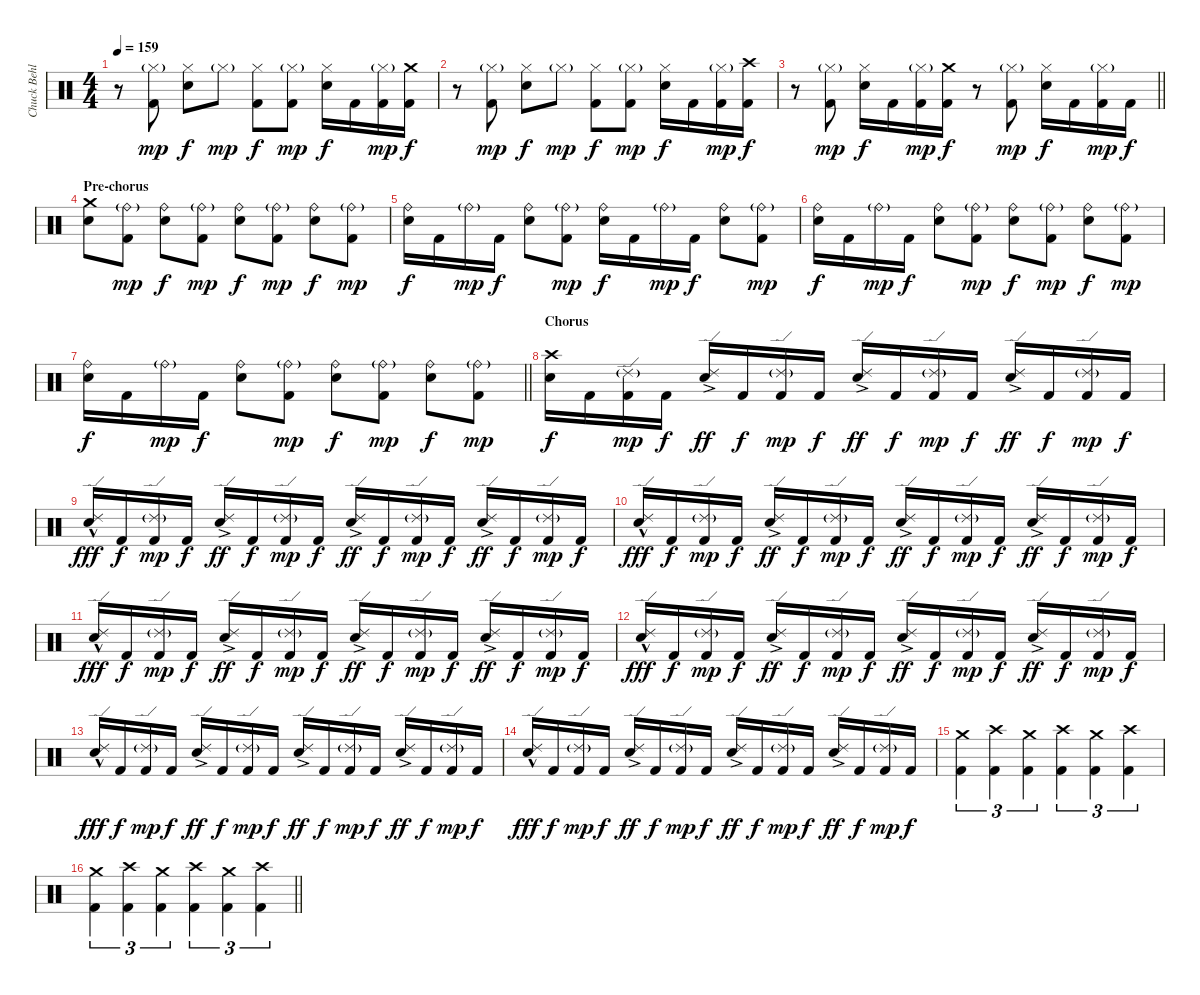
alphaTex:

\track ("Chuck Behler" "Chuck Behl") {instrument percussion}
\staff {score}
\articulation defaults
\ts (4 4)
\tempo 159
\clef neutral
\ks c
r.8{dy f} ("Hi-Hat (closed)"{g} "Kick (hit) 2").8{dy mp} ("Hi-Hat (closed)" "Snare (hit) 2").8{dy f} "Hi-Hat (closed)"{g}.8{dy mp} ("Hi-Hat (closed)" "Kick (hit) 2").8{dy f} ("Hi-Hat (closed)"{g} "Kick (hit) 2").8{dy mp} ("Hi-Hat (closed)" "Snare (hit) 2").16{dy f} "Kick (hit) 2".16 ("Hi-Hat (closed)"{g} "Kick (hit) 2").16{dy mp} ("Crash medium (hit)" "Kick (hit) 2").16{dy f} |
r.8 ("Hi-Hat (closed)"{g} "Kick (hit) 2").8{dy mp} ("Hi-Hat (closed)" "Snare (hit) 2").8{dy f} "Hi-Hat (closed)"{g}.8{dy mp} ("Hi-Hat (closed)" "Kick (hit) 2").8{dy f} ("Hi-Hat (closed)"{g} "Kick (hit) 2").8{dy mp} ("Hi-Hat (closed)" "Snare (hit) 2").16{dy f} "Kick (hit) 2".16 ("Hi-Hat (closed)"{g} "Kick (hit) 2").16{dy mp} ("Crash high (hit)" "Kick (hit) 2").16{dy f} |
\barLineRight lightlight
r.8 ("Hi-Hat (closed)"{g} "Kick (hit) 2").8{dy mp} ("Hi-Hat (closed)" "Snare (hit) 2").16{dy f} "Kick (hit) 2".16 ("Hi-Hat (closed)"{g} "Kick (hit) 2").16{dy mp} ("Crash medium (hit)" "Kick (hit) 2").16{dy f} r.8 ("Hi-Hat (closed)"{g} "Kick (hit) 2").8{dy mp} ("Hi-Hat (closed)" "Snare (hit) 2").16{dy f} "Kick (hit) 2".16 ("Hi-Hat (closed)"{g} "Kick (hit) 2").16{dy mp} "Kick (hit) 2".16{dy f} |
\section ("" "Pre-chorus")
("Crash medium (hit)" "Snare (hit) 2").8 ("Ride (bell)"{g} "Kick (hit) 2").8{dy mp} ("Ride (bell)" "Snare (hit) 2").8{dy f} ("Ride (bell)"{g} "Kick (hit) 2").8{dy mp} ("Ride (bell)" "Snare (hit) 2").8{dy f} ("Ride (bell)"{g} "Kick (hit) 2").8{dy mp} ("Ride (bell)" "Snare (hit) 2").8{dy f} ("Ride (bell)"{g} "Kick (hit) 2").8{dy mp} |
("Ride (bell)" "Snare (hit) 2").16{dy f} "Kick (hit) 2".16 "Ride (bell)"{g}.16{dy mp} "Kick (hit) 2".16{dy f} ("Ride (bell)" "Snare (hit) 2").8 ("Ride (bell)"{g} "Kick (hit) 2").8{dy mp} ("Ride (bell)" "Snare (hit) 2").16{dy f} "Kick (hit) 2".16 "Ride (bell)"{g}.16{dy mp} "Kick (hit) 2".16{dy f} ("Ride (bell)" "Snare (hit) 2").8 ("Ride (bell)"{g} "Kick (hit) 2").8{dy mp} |
("Ride (bell)" "Snare (hit) 2").16{dy f} "Kick (hit) 2".16 "Ride (bell)"{g}.16{dy mp} "Kick (hit) 2".16{dy f} ("Ride (bell)" "Snare (hit) 2").8 ("Ride (bell)"{g} "Kick (hit) 2").8{dy mp} ("Ride (bell)" "Snare (hit) 2").8{dy f} ("Ride (bell)"{g} "Kick (hit) 2").8{dy mp} ("Ride (bell)" "Snare (hit) 2").8{dy f} ("Ride (bell)"{g} "Kick (hit) 2").8{dy mp} |
\barLineRight lightlight
("Ride (bell)" "Snare (hit) 2").16{dy f} "Kick (hit) 2".16 "Ride (bell)"{g}.16{dy mp} "Kick (hit) 2".16{dy f} ("Ride (bell)" "Snare (hit) 2").8 ("Ride (bell)"{g} "Kick (hit) 2").8{dy mp} ("Ride (bell)" "Snare (hit) 2").8{dy f} ("Ride (bell)"{g} "Kick (hit) 2").8{dy mp} ("Ride (bell)" "Snare (hit) 2").8{dy f} ("Ride (bell)"{g} "Kick (hit) 2").8{dy mp} |
\section ("" "Chorus")
("Crash high (hit)" "Snare (hit) 2").16{dy f} "Kick (hit) 2".16 ("Ride (edge) 2"{g} "Kick (hit) 2").16{dy mp} "Kick (hit) 2".16{dy f} ("Ride (edge) 2"{ac} "Snare (hit) 2").16{dy ff} "Kick (hit) 2".16{dy f} ("Ride (edge) 2"{g} "Kick (hit) 2").16{dy mp} "Kick (hit) 2".16{dy f} ("Ride (edge) 2"{ac} "Snare (hit) 2").16{dy ff} "Kick (hit) 2".16{dy f} ("Ride (edge) 2"{g} "Kick (hit) 2").16{dy mp} "Kick (hit) 2".16{dy f} ("Ride (edge) 2"{ac} "Snare (hit) 2").16{dy ff} "Kick (hit) 2".16{dy f} ("Ride (edge) 2"{g} "Kick (hit) 2").16{dy mp} "Kick (hit) 2".16{dy f} |
("Ride (edge) 2"{hac} "Snare (hit) 2").16{dy fff} "Kick (hit) 2".16{dy f} ("Ride (edge) 2"{g} "Kick (hit) 2").16{dy mp} "Kick (hit) 2".16{dy f} ("Ride (edge) 2"{ac} "Snare (hit) 2").16{dy ff} "Kick (hit) 2".16{dy f} ("Ride (edge) 2"{g} "Kick (hit) 2").16{dy mp} "Kick (hit) 2".16{dy f} ("Ride (edge) 2"{ac} "Snare (hit) 2").16{dy ff} "Kick (hit) 2".16{dy f} ("Ride (edge) 2"{g} "Kick (hit) 2").16{dy mp} "Kick (hit) 2".16{dy f} ("Ride (edge) 2"{ac} "Snare (hit) 2").16{dy ff} "Kick (hit) 2".16{dy f} ("Ride (edge) 2"{g} "Kick (hit) 2").16{dy mp} "Kick (hit) 2".16{dy f} |
("Ride (edge) 2"{hac} "Snare (hit) 2").16{dy fff} "Kick (hit) 2".16{dy f} ("Ride (edge) 2"{g} "Kick (hit) 2").16{dy mp} "Kick (hit) 2".16{dy f} ("Ride (edge) 2"{ac} "Snare (hit) 2").16{dy ff} "Kick (hit) 2".16{dy f} ("Ride (edge) 2"{g} "Kick (hit) 2").16{dy mp} "Kick (hit) 2".16{dy f} ("Ride (edge) 2"{ac} "Snare (hit) 2").16{dy ff} "Kick (hit) 2".16{dy f} ("Ride (edge) 2"{g} "Kick (hit) 2").16{dy mp} "Kick (hit) 2".16{dy f} ("Ride (edge) 2"{ac} "Snare (hit) 2").16{dy ff} "Kick (hit) 2".16{dy f} ("Ride (edge) 2"{g} "Kick (hit) 2").16{dy mp} "Kick (hit) 2".16{dy f} |
("Ride (edge) 2"{hac} "Snare (hit) 2").16{dy fff} "Kick (hit) 2".16{dy f} ("Ride (edge) 2"{g} "Kick (hit) 2").16{dy mp} "Kick (hit) 2".16{dy f} ("Ride (edge) 2"{ac} "Snare (hit) 2").16{dy ff} "Kick (hit) 2".16{dy f} ("Ride (edge) 2"{g} "Kick (hit) 2").16{dy mp} "Kick (hit) 2".16{dy f} ("Ride (edge) 2"{ac} "Snare (hit) 2").16{dy ff} "Kick (hit) 2".16{dy f} ("Ride (edge) 2"{g} "Kick (hit) 2").16{dy mp} "Kick (hit) 2".16{dy f} ("Ride (edge) 2"{ac} "Snare (hit) 2").16{dy ff} "Kick (hit) 2".16{dy f} ("Ride (edge) 2"{g} "Kick (hit) 2").16{dy mp} "Kick (hit) 2".16{dy f} |
("Ride (edge) 2"{hac} "Snare (hit) 2").16{dy fff} "Kick (hit) 2".16{dy f} ("Ride (edge) 2"{g} "Kick (hit) 2").16{dy mp} "Kick (hit) 2".16{dy f} ("Ride (edge) 2"{ac} "Snare (hit) 2").16{dy ff} "Kick (hit) 2".16{dy f} ("Ride (edge) 2"{g} "Kick (hit) 2").16{dy mp} "Kick (hit) 2".16{dy f} ("Ride (edge) 2"{ac} "Snare (hit) 2").16{dy ff} "Kick (hit) 2".16{dy f} ("Ride (edge) 2"{g} "Kick (hit) 2").16{dy mp} "Kick (hit) 2".16{dy f} ("Ride (edge) 2"{ac} "Snare (hit) 2").16{dy ff} "Kick (hit) 2".16{dy f} ("Ride (edge) 2"{g} "Kick (hit) 2").16{dy mp} "Kick (hit) 2".16{dy f} |
("Ride (edge) 2"{hac} "Snare (hit) 2").16{dy fff} "Kick (hit) 2".16{dy f} ("Ride (edge) 2"{g} "Kick (hit) 2").16{dy mp} "Kick (hit) 2".16{dy f} ("Ride (edge) 2"{ac} "Snare (hit) 2").16{dy ff} "Kick (hit) 2".16{dy f} ("Ride (edge) 2"{g} "Kick (hit) 2").16{dy mp} "Kick (hit) 2".16{dy f} ("Ride (edge) 2"{ac} "Snare (hit) 2").16{dy ff} "Kick (hit) 2".16{dy f} ("Ride (edge) 2"{g} "Kick (hit) 2").16{dy mp} "Kick (hit) 2".16{dy f} ("Ride (edge) 2"{ac} "Snare (hit) 2").16{dy ff} "Kick (hit) 2".16{dy f} ("Ride (edge) 2"{g} "Kick (hit) 2").16{dy mp} "Kick (hit) 2".16{dy f} |
("Ride (edge) 2"{hac} "Snare (hit) 2").16{dy fff} "Kick (hit) 2".16{dy f} ("Ride (edge) 2"{g} "Kick (hit) 2").16{dy mp} "Kick (hit) 2".16{dy f} ("Ride (edge) 2"{ac} "Snare (hit) 2").16{dy ff} "Kick (hit) 2".16{dy f} ("Ride (edge) 2"{g} "Kick (hit) 2").16{dy mp} "Kick (hit) 2".16{dy f} ("Ride (edge) 2"{ac} "Snare (hit) 2").16{dy ff} "Kick (hit) 2".16{dy f} ("Ride (edge) 2"{g} "Kick (hit) 2").16{dy mp} "Kick (hit) 2".16{dy f} ("Ride (edge) 2"{ac} "Snare (hit) 2").16{dy ff} "Kick (hit) 2".16{dy f} ("Ride (edge) 2"{g} "Kick (hit) 2").16{dy mp} "Kick (hit) 2".16{dy f} |
("Crash medium (hit)" "Kick (hit) 2").4{tu (3 2)} ("Crash high (hit)" "Kick (hit) 2").4{tu (3 2)} ("Crash medium (hit)" "Kick (hit) 2").4{tu (3 2)} ("Crash high (hit)" "Kick (hit) 2").4{tu (3 2)} ("Crash medium (hit)" "Kick (hit) 2").4{tu (3 2)} ("Crash high (hit)" "Kick (hit) 2").4{tu (3 2)} |
\barLineRight lightlight
("Crash medium (hit)" "Kick (hit) 2").4{tu (3 2)} ("Crash high (hit)" "Kick (hit) 2").4{tu (3 2)} ("Crash medium (hit)" "Kick (hit) 2").4{tu (3 2)} ("Crash high (hit)" "Kick (hit) 2").4{tu (3 2)} ("Crash medium (hit)" "Kick (hit) 2").4{tu (3 2)} ("Crash high (hit)" "Kick (hit) 2").4{tu (3 2)}
